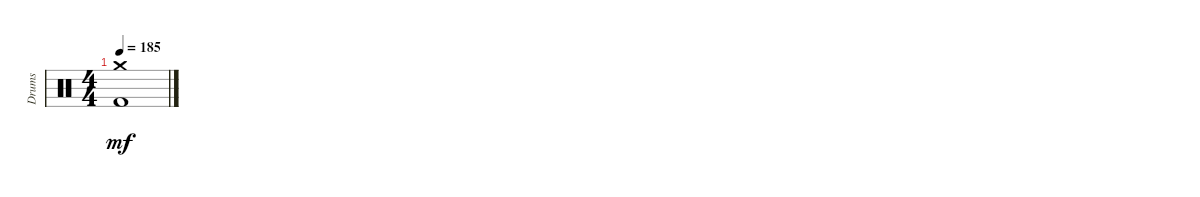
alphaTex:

\track ("Drums" "Drums") {instrument percussion}
\staff {score}
\articulation defaults
\ts (4 4)
\tempo 185
\clef neutral
\ks c
("Crash medium (hit)" "Kick (hit) 2").1{dy mf}
